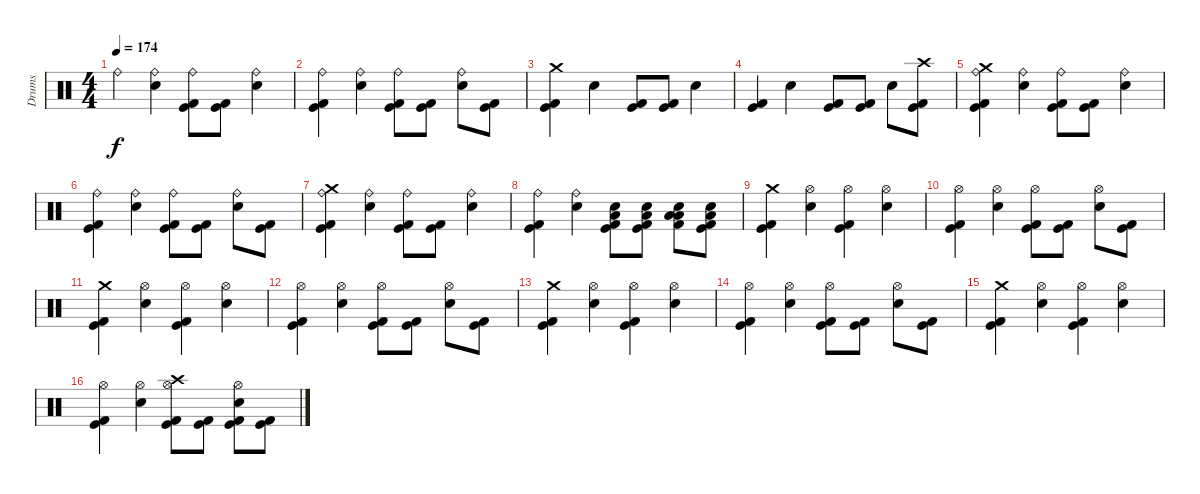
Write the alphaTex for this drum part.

\track ("Drums" "Drums") {instrument percussion}
\staff {score}
\articulation defaults
\ts (4 4)
\tempo 174
\clef neutral
\ks c "Ride (bell)".4{dy f}
("Ride (bell)" "Electric Snare (hit)").4 ("Ride (bell)" "Kick (hit) 2" "Kick (hit)").8 ("Kick (hit) 2" "Kick (hit)").8 ("Ride (bell)" "Electric Snare (hit)").4 |
("Ride (bell)" "Kick (hit) 2" "Kick (hit)").4 ("Ride (bell)" "Electric Snare (hit)").4 ("Ride (bell)" "Kick (hit) 2" "Kick (hit)").8 ("Kick (hit) 2" "Kick (hit)").8 ("Ride (bell)" "Electric Snare (hit)").8 ("Kick (hit) 2" "Kick (hit)").8 |
("Crash medium (hit)" "Kick (hit) 2" "Kick (hit)").4 "Electric Snare (hit)".4 ("Kick (hit) 2" "Kick (hit)").8 ("Kick (hit) 2" "Kick (hit)").8 "Electric Snare (hit)".4 |
("Kick (hit) 2" "Kick (hit)").4 "Electric Snare (hit)".4 ("Kick (hit) 2" "Kick (hit)").8 ("Kick (hit) 2" "Kick (hit)").8 "Electric Snare (hit)".8 ("Crash high (hit)" "Kick (hit) 2" "Kick (hit)").8 |
("Crash medium (hit)" "Ride (bell)" "Kick (hit) 2" "Kick (hit)").4 ("Ride (bell)" "Electric Snare (hit)").4 ("Ride (bell)" "Kick (hit) 2" "Kick (hit)").8 ("Kick (hit) 2" "Kick (hit)").8 ("Ride (bell)" "Electric Snare (hit)").4 |
("Ride (bell)" "Kick (hit) 2" "Kick (hit)").4 ("Ride (bell)" "Electric Snare (hit)").4 ("Ride (bell)" "Kick (hit) 2" "Kick (hit)").8 ("Kick (hit) 2" "Kick (hit)").8 ("Ride (bell)" "Electric Snare (hit)").8 ("Kick (hit) 2" "Kick (hit)").8 |
("Crash medium (hit)" "Ride (bell)" "Kick (hit) 2" "Kick (hit)").4 ("Ride (bell)" "Electric Snare (hit)").4 ("Ride (bell)" "Kick (hit) 2" "Kick (hit)").8 ("Kick (hit) 2" "Kick (hit)").8 ("Ride (bell)" "Electric Snare (hit)").4 |
("Ride (bell)" "Kick (hit) 2" "Kick (hit)").4 ("Ride (bell)" "Electric Snare (hit)").4 ("Electric Snare (hit)" "Low Tom (hit)" "Kick (hit) 2" "Kick (hit)").8 ("Electric Snare (hit)" "Low Tom (hit)" "Kick (hit) 2" "Kick (hit)").8 ("Electric Snare (hit)" "Low Tom (hit)" "Kick (hit) 2" "Low Tom (hit)").8 ("Electric Snare (hit)" "Low Tom (hit)" "Kick (hit) 2" "Kick (hit)").8 |
("Crash medium (hit)" "Kick (hit) 2" "Kick (hit)").4 ("Hi-Hat (open)" "Electric Snare (hit)").4 ("Hi-Hat (open)" "Kick (hit) 2" "Kick (hit)").4 ("Hi-Hat (open)" "Electric Snare (hit)").4 |
("Hi-Hat (open)" "Kick (hit) 2" "Kick (hit)").4 ("Hi-Hat (open)" "Electric Snare (hit)").4 ("Hi-Hat (open)" "Kick (hit) 2" "Kick (hit)").8 ("Kick (hit) 2" "Kick (hit)").8 ("Hi-Hat (open)" "Electric Snare (hit)").8 ("Kick (hit) 2" "Kick (hit)").8 |
("Crash medium (hit)" "Kick (hit) 2" "Kick (hit)").4 ("Hi-Hat (open)" "Electric Snare (hit)").4 ("Hi-Hat (open)" "Kick (hit) 2" "Kick (hit)").4 ("Hi-Hat (open)" "Electric Snare (hit)").4 |
("Hi-Hat (open)" "Kick (hit) 2" "Kick (hit)").4 ("Hi-Hat (open)" "Electric Snare (hit)").4 ("Hi-Hat (open)" "Kick (hit) 2" "Kick (hit)").8 ("Kick (hit) 2" "Kick (hit)").8 ("Hi-Hat (open)" "Electric Snare (hit)").8 ("Kick (hit) 2" "Kick (hit)").8 |
("Crash medium (hit)" "Kick (hit) 2" "Kick (hit)").4 ("Hi-Hat (open)" "Electric Snare (hit)").4 ("Hi-Hat (open)" "Kick (hit) 2" "Kick (hit)").4 ("Hi-Hat (open)" "Electric Snare (hit)").4 |
("Hi-Hat (open)" "Kick (hit) 2" "Kick (hit)").4 ("Hi-Hat (open)" "Electric Snare (hit)").4 ("Hi-Hat (open)" "Kick (hit) 2" "Kick (hit)").8 ("Kick (hit) 2" "Kick (hit)").8 ("Hi-Hat (open)" "Electric Snare (hit)").8 ("Kick (hit) 2" "Kick (hit)").8 |
("Crash medium (hit)" "Kick (hit) 2" "Kick (hit)").4 ("Hi-Hat (open)" "Electric Snare (hit)").4 ("Hi-Hat (open)" "Kick (hit) 2" "Kick (hit)").4 ("Hi-Hat (open)" "Electric Snare (hit)").4 |
("Hi-Hat (open)" "Kick (hit) 2" "Kick (hit)").4 ("Hi-Hat (open)" "Electric Snare (hit)").4 ("Crash high (hit)" "Hi-Hat (open)" "Kick (hit) 2" "Kick (hit)").8 ("Kick (hit) 2" "Kick (hit)").8 ("Hi-Hat (open)" "Electric Snare (hit)" "Kick (hit) 2" "Kick (hit)").8 ("Kick (hit) 2" "Kick (hit)").8
